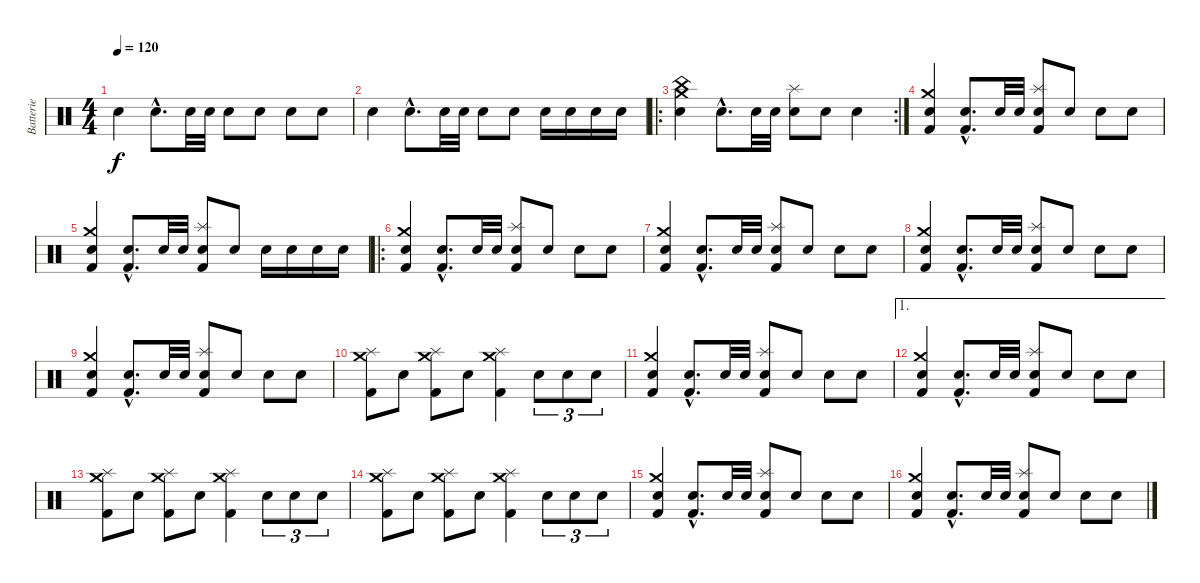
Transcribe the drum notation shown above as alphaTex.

\track ("Batterie" "Batterie") {instrument percussion}
\staff {score}
\articulation defaults
\ts (4 4)
\tempo 120
\clef neutral
\ks c "Electric Snare (hit)".4{dy f} "Electric Snare (hit)"{hac}.8{d} "Electric Snare (hit)".32 "Electric Snare (hit)".32 "Electric Snare (hit)".8 "Electric Snare (hit)".8 "Electric Snare (hit)".8 "Electric Snare (hit)".8
|
"Electric Snare (hit)".4 "Electric Snare (hit)"{hac}.8{d} "Electric Snare (hit)".32 "Electric Snare (hit)".32 "Electric Snare (hit)".8 "Electric Snare (hit)".8 "Electric Snare (hit)".16 "Electric Snare (hit)".16 "Electric Snare (hit)".16 "Electric Snare (hit)".16 |
\ro
\rc 2
("Electric Snare (hit)" "Crash medium (hit)" "China (hit)").4 "Electric Snare (hit)"{hac}.8{d} "Electric Snare (hit)".32 "Electric Snare (hit)".32 ("Electric Snare (hit)" "Splash (hit)").8 "Electric Snare (hit)".8 "Electric Snare (hit)".4 |
("Electric Snare (hit)" "Crash medium (hit)" "Kick (hit) 2").4 ("Electric Snare (hit)"{hac} "Kick (hit) 2"{hac}).8{d} "Electric Snare (hit)".32 "Electric Snare (hit)".32 ("Electric Snare (hit)" "Splash (hit)" "Kick (hit) 2").8 "Electric Snare (hit)".8 "Electric Snare (hit)".8 "Electric Snare (hit)".8 |
("Electric Snare (hit)" "Crash medium (hit)" "Kick (hit) 2").4 ("Electric Snare (hit)"{hac} "Kick (hit) 2"{hac}).8{d} "Electric Snare (hit)".32 "Electric Snare (hit)".32 ("Electric Snare (hit)" "Splash (hit)" "Kick (hit) 2").8 "Electric Snare (hit)".8 "Electric Snare (hit)".16 "Electric Snare (hit)".16 "Electric Snare (hit)".16 "Electric Snare (hit)".16 |
\ro
("Electric Snare (hit)" "Crash medium (hit)" "Kick (hit) 2").4 ("Electric Snare (hit)"{hac} "Kick (hit) 2"{hac}).8{d} "Electric Snare (hit)".32 "Electric Snare (hit)".32 ("Electric Snare (hit)" "Splash (hit)" "Kick (hit) 2").8 "Electric Snare (hit)".8 "Electric Snare (hit)".8 "Electric Snare (hit)".8 |
("Electric Snare (hit)" "Crash medium (hit)" "Kick (hit) 2").4 ("Electric Snare (hit)"{hac} "Kick (hit) 2"{hac}).8{d} "Electric Snare (hit)".32 "Electric Snare (hit)".32 ("Electric Snare (hit)" "Splash (hit)" "Kick (hit) 2").8 "Electric Snare (hit)".8 "Electric Snare (hit)".8 "Electric Snare (hit)".8 |
("Electric Snare (hit)" "Crash medium (hit)" "Kick (hit) 2").4 ("Electric Snare (hit)"{hac} "Kick (hit) 2"{hac}).8{d} "Electric Snare (hit)".32 "Electric Snare (hit)".32 ("Electric Snare (hit)" "Splash (hit)" "Kick (hit) 2").8 "Electric Snare (hit)".8 "Electric Snare (hit)".8 "Electric Snare (hit)".8 |
("Electric Snare (hit)" "Crash medium (hit)" "Kick (hit) 2").4 ("Electric Snare (hit)"{hac} "Kick (hit) 2"{hac}).8{d} "Electric Snare (hit)".32 "Electric Snare (hit)".32 ("Electric Snare (hit)" "Splash (hit)" "Kick (hit) 2").8 "Electric Snare (hit)".8 "Electric Snare (hit)".8 "Electric Snare (hit)".8 |
("Splash (hit)" "Crash medium (hit)" "Kick (hit) 2").8 "Electric Snare (hit)".8 ("Splash (hit)" "Crash medium (hit)" "Kick (hit) 2").8 "Electric Snare (hit)".8 ("Splash (hit)" "Crash medium (hit)" "Kick (hit) 2").4 "Electric Snare (hit)".8{tu (3 2)} "Electric Snare (hit)".8{tu (3 2)} "Electric Snare (hit)".8{tu (3 2)} |
("Electric Snare (hit)" "Crash medium (hit)" "Kick (hit) 2").4 ("Electric Snare (hit)"{hac} "Kick (hit) 2"{hac}).8{d} "Electric Snare (hit)".32 "Electric Snare (hit)".32 ("Electric Snare (hit)" "Splash (hit)" "Kick (hit) 2").8 "Electric Snare (hit)".8 "Electric Snare (hit)".8 "Electric Snare (hit)".8 |
\ae 1
("Electric Snare (hit)" "Crash medium (hit)" "Kick (hit) 2").4 ("Electric Snare (hit)"{hac} "Kick (hit) 2"{hac}).8{d} "Electric Snare (hit)".32 "Electric Snare (hit)".32 ("Electric Snare (hit)" "Splash (hit)" "Kick (hit) 2").8 "Electric Snare (hit)".8 "Electric Snare (hit)".8 "Electric Snare (hit)".8 |
("Splash (hit)" "Crash medium (hit)" "Kick (hit) 2").8 "Electric Snare (hit)".8 ("Splash (hit)" "Crash medium (hit)" "Kick (hit) 2").8 "Electric Snare (hit)".8 ("Splash (hit)" "Crash medium (hit)" "Kick (hit) 2").4 "Electric Snare (hit)".8{tu (3 2)} "Electric Snare (hit)".8{tu (3 2)} "Electric Snare (hit)".8{tu (3 2)} |
("Splash (hit)" "Crash medium (hit)" "Kick (hit) 2").8 "Electric Snare (hit)".8 ("Splash (hit)" "Crash medium (hit)" "Kick (hit) 2").8 "Electric Snare (hit)".8 ("Splash (hit)" "Crash medium (hit)" "Kick (hit) 2").4 "Electric Snare (hit)".8{tu (3 2)} "Electric Snare (hit)".8{tu (3 2)} "Electric Snare (hit)".8{tu (3 2)} |
("Electric Snare (hit)" "Crash medium (hit)" "Kick (hit) 2").4 ("Electric Snare (hit)"{hac} "Kick (hit) 2"{hac}).8{d} "Electric Snare (hit)".32 "Electric Snare (hit)".32 ("Electric Snare (hit)" "Splash (hit)" "Kick (hit) 2").8 "Electric Snare (hit)".8 "Electric Snare (hit)".8 "Electric Snare (hit)".8 |
("Electric Snare (hit)" "Crash medium (hit)" "Kick (hit) 2").4 ("Electric Snare (hit)"{hac} "Kick (hit) 2"{hac}).8{d} "Electric Snare (hit)".32 "Electric Snare (hit)".32 ("Electric Snare (hit)" "Splash (hit)" "Kick (hit) 2").8 "Electric Snare (hit)".8 "Electric Snare (hit)".8 "Electric Snare (hit)".8
